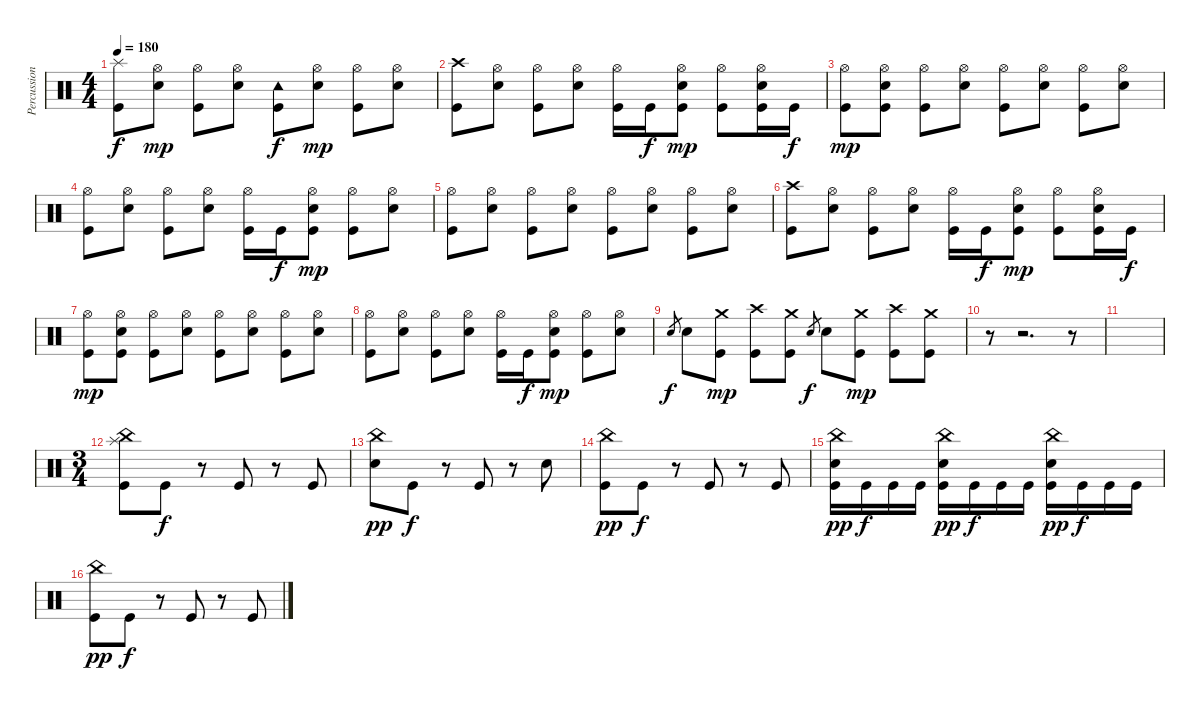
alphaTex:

\track ("Percussion" "Percussion") {instrument percussion}
\staff {score}
\articulation defaults
\ts (4 4)
\tempo 180
\clef neutral
\ks c
("Splash (hit)" "Kick (hit)").8{dy f} ("Hi-Hat (open)" "Electric Snare (hit)").8{dy mp} ("Hi-Hat (open)" "Kick (hit)").8 ("Hi-Hat (open)" "Electric Snare (hit)").8 ("Tambourine (hit)" "Kick (hit)").8{dy f} ("Hi-Hat (open)" "Electric Snare (hit)").8{dy mp} ("Hi-Hat (open)" "Kick (hit)").8 ("Hi-Hat (open)" "Electric Snare (hit)").8 |
("Crash high (hit)" "Kick (hit)").8 ("Hi-Hat (open)" "Electric Snare (hit)").8 ("Hi-Hat (open)" "Kick (hit)").8 ("Hi-Hat (open)" "Electric Snare (hit)").8 ("Hi-Hat (open)" "Kick (hit)").16 "Kick (hit)".16{dy f} ("Hi-Hat (open)" "Electric Snare (hit)" "Kick (hit)").8{dy mp} ("Hi-Hat (open)" "Kick (hit)").8 ("Hi-Hat (open)" "Electric Snare (hit)" "Kick (hit)").16 "Kick (hit)".16{dy f} |
("Hi-Hat (open)" "Kick (hit)").8{dy mp} ("Hi-Hat (open)" "Electric Snare (hit)" "Kick (hit)").8 ("Hi-Hat (open)" "Kick (hit)").8 ("Hi-Hat (open)" "Electric Snare (hit)").8 ("Hi-Hat (open)" "Kick (hit)").8 ("Hi-Hat (open)" "Electric Snare (hit)").8 ("Hi-Hat (open)" "Kick (hit)").8 ("Hi-Hat (open)" "Electric Snare (hit)").8 |
("Hi-Hat (open)" "Kick (hit)").8 ("Hi-Hat (open)" "Electric Snare (hit)").8 ("Hi-Hat (open)" "Kick (hit)").8 ("Hi-Hat (open)" "Electric Snare (hit)").8 ("Hi-Hat (open)" "Kick (hit)").16 "Kick (hit)".16{dy f} ("Hi-Hat (open)" "Electric Snare (hit)" "Kick (hit)").8{dy mp} ("Hi-Hat (open)" "Kick (hit)").8 ("Hi-Hat (open)" "Electric Snare (hit)").8 |
("Hi-Hat (open)" "Kick (hit)").8 ("Hi-Hat (open)" "Electric Snare (hit)").8 ("Hi-Hat (open)" "Kick (hit)").8 ("Hi-Hat (open)" "Electric Snare (hit)").8 ("Hi-Hat (open)" "Kick (hit)").8 ("Hi-Hat (open)" "Electric Snare (hit)").8 ("Hi-Hat (open)" "Kick (hit)").8 ("Hi-Hat (open)" "Electric Snare (hit)").8 |
("Crash high (hit)" "Kick (hit)").8 ("Hi-Hat (open)" "Electric Snare (hit)").8 ("Hi-Hat (open)" "Kick (hit)").8 ("Hi-Hat (open)" "Electric Snare (hit)").8 ("Hi-Hat (open)" "Kick (hit)").16 "Kick (hit)".16{dy f} ("Hi-Hat (open)" "Electric Snare (hit)" "Kick (hit)").8{dy mp} ("Hi-Hat (open)" "Kick (hit)").8 ("Hi-Hat (open)" "Electric Snare (hit)" "Kick (hit)").16 "Kick (hit)".16{dy f} |
("Hi-Hat (open)" "Kick (hit)").8{dy mp} ("Hi-Hat (open)" "Electric Snare (hit)" "Kick (hit)").8 ("Hi-Hat (open)" "Kick (hit)").8 ("Hi-Hat (open)" "Electric Snare (hit)").8 ("Hi-Hat (open)" "Kick (hit)").8 ("Hi-Hat (open)" "Electric Snare (hit)").8 ("Hi-Hat (open)" "Kick (hit)").8 ("Hi-Hat (open)" "Electric Snare (hit)").8 |
("Hi-Hat (open)" "Kick (hit)").8 ("Hi-Hat (open)" "Electric Snare (hit)").8 ("Hi-Hat (open)" "Kick (hit)").8 ("Hi-Hat (open)" "Electric Snare (hit)").8 ("Hi-Hat (open)" "Kick (hit)").16 "Kick (hit)".16{dy f} ("Hi-Hat (open)" "Electric Snare (hit)" "Kick (hit)").8{dy mp} ("Hi-Hat (open)" "Kick (hit)").8 ("Hi-Hat (open)" "Electric Snare (hit)").8 |
"Electric Snare (hit)".8{gr dy f} "Electric Snare (hit)".8 ("Crash medium (hit)" "Kick (hit)").8{dy mp} ("Crash high (hit)" "Kick (hit)").8 ("Crash medium (hit)" "Kick (hit)").8 "Electric Snare (hit)".8{gr dy f} "Electric Snare (hit)".8 ("Crash medium (hit)" "Kick (hit)").8{dy mp} ("Crash high (hit)" "Kick (hit)").8 ("Crash medium (hit)" "Kick (hit)").8 |
r.8 r.2{d volume 0} r.8 |
|
\ts (3 4)
("China (hit)" "Splash (hit)" "Kick (hit)").8{volume 9} "Kick (hit)".8{dy f} r.8 "Kick (hit)".8 r.8 "Kick (hit)".8 |
("China (hit)" "Electric Snare (hit)").8{dy pp} "Kick (hit)".8{dy f} r.8 "Kick (hit)".8 r.8 "Electric Snare (hit)".8 |
("China (hit)" "Kick (hit)").8{dy pp} "Kick (hit)".8{dy f} r.8 "Kick (hit)".8 r.8 "Kick (hit)".8 |
("China (hit)" "Electric Snare (hit)" "Kick (hit)").16{dy pp} "Kick (hit)".16{dy f} "Kick (hit)".16 "Kick (hit)".16 ("China (hit)" "Electric Snare (hit)" "Kick (hit)").16{dy pp} "Kick (hit)".16{dy f} "Kick (hit)".16 "Kick (hit)".16 ("China (hit)" "Electric Snare (hit)" "Kick (hit)").16{dy pp} "Kick (hit)".16{dy f} "Kick (hit)".16 "Kick (hit)".16 |
("China (hit)" "Kick (hit)").8{dy pp} "Kick (hit)".8{dy f} r.8 "Kick (hit)".8 r.8 "Kick (hit)".8
